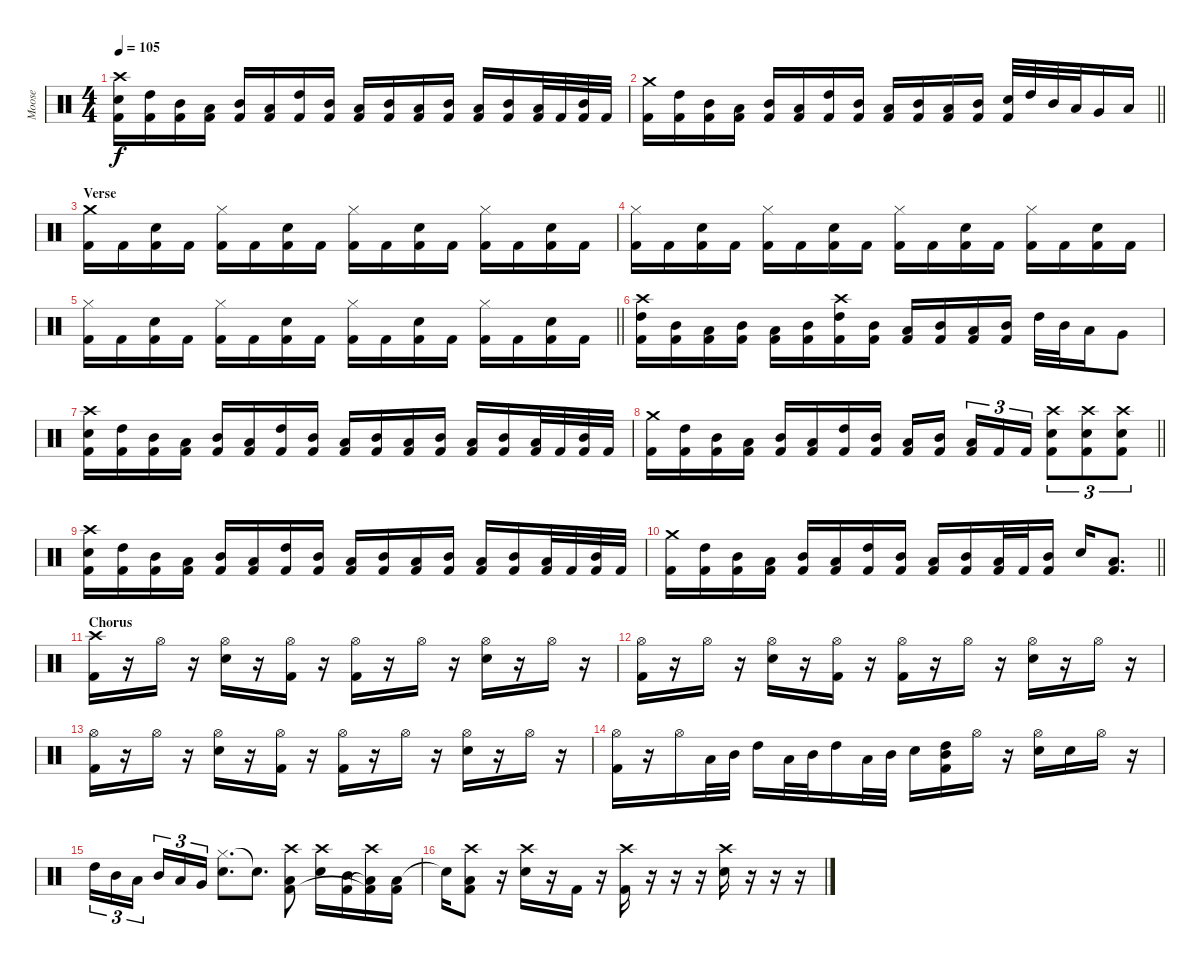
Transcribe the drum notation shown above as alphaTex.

\track ("Moose" "Moose") {instrument percussion}
\staff {score}
\articulation defaults
\ts (4 4)
\tempo 105
\clef neutral
\ks c
("Crash high (hit)" "Electric Snare (hit)" "Kick (hit) 2").16{dy f} ("High Tom (hit)" "Kick (hit) 2").16 ("Mid Tom (hit)" "Kick (hit) 2").16 ("Low Tom (hit)" "Kick (hit) 2").16 ("Mid Tom (hit)" "Kick (hit) 2").16 ("Low Tom (hit)" "Kick (hit) 2").16 ("High Tom (hit)" "Kick (hit) 2").16 ("Mid Tom (hit)" "Kick (hit) 2").16 ("Low Tom (hit)" "Kick (hit) 2").16 ("Mid Tom (hit)" "Kick (hit) 2").16 ("Low Tom (hit)" "Kick (hit) 2").16 ("Mid Tom (hit)" "Kick (hit) 2").16 ("Low Tom (hit)" "Kick (hit) 2").16 ("Mid Tom (hit)" "Kick (hit) 2").16 ("Low Tom (hit)" "Kick (hit) 2").32 "Kick (hit) 2".32 ("Mid Tom (hit)" "Kick (hit) 2").32 "Kick (hit) 2".32 |
\barLineRight lightlight
("Crash medium (hit)" "Kick (hit) 2").16 ("High Tom (hit)" "Kick (hit) 2").16 ("Mid Tom (hit)" "Kick (hit) 2").16 ("Low Tom (hit)" "Kick (hit) 2").16 ("Mid Tom (hit)" "Kick (hit) 2").16 ("Low Tom (hit)" "Kick (hit) 2").16 ("High Tom (hit)" "Kick (hit) 2").16 ("Mid Tom (hit)" "Kick (hit) 2").16 ("Low Tom (hit)" "Kick (hit) 2").16 ("Mid Tom (hit)" "Kick (hit) 2").16 ("Low Tom (hit)" "Kick (hit) 2").16 ("Mid Tom (hit)" "Kick (hit) 2").16 ("Electric Snare (hit)" "Kick (hit) 2").32 "High Tom (hit)".32 "Mid Tom (hit)".32 "Low Tom (hit)".32 "Very Low Tom (hit)".16 "Low Tom (hit)".16 |
\section ("" "Verse")
("Crash medium (hit)" "Kick (hit) 2").16 "Kick (hit) 2".16 ("Electric Snare (hit)" "Kick (hit) 2").16 "Kick (hit) 2".16 ("Hi-Hat (closed)" "Kick (hit) 2").16 "Kick (hit) 2".16 ("Electric Snare (hit)" "Kick (hit) 2").16 "Kick (hit) 2".16 ("Hi-Hat (closed)" "Kick (hit) 2").16 "Kick (hit) 2".16 ("Electric Snare (hit)" "Kick (hit) 2").16 "Kick (hit) 2".16 ("Hi-Hat (closed)" "Kick (hit) 2").16 "Kick (hit) 2".16 ("Electric Snare (hit)" "Kick (hit) 2").16 "Kick (hit) 2".16 |
("Hi-Hat (closed)" "Kick (hit) 2").16 "Kick (hit) 2".16 ("Electric Snare (hit)" "Kick (hit) 2").16 "Kick (hit) 2".16 ("Hi-Hat (closed)" "Kick (hit) 2").16 "Kick (hit) 2".16 ("Electric Snare (hit)" "Kick (hit) 2").16 "Kick (hit) 2".16 ("Hi-Hat (closed)" "Kick (hit) 2").16 "Kick (hit) 2".16 ("Electric Snare (hit)" "Kick (hit) 2").16 "Kick (hit) 2".16 ("Hi-Hat (closed)" "Kick (hit) 2").16 "Kick (hit) 2".16 ("Electric Snare (hit)" "Kick (hit) 2").16 "Kick (hit) 2".16 |
\barLineRight lightlight
("Hi-Hat (closed)" "Kick (hit) 2").16 "Kick (hit) 2".16 ("Electric Snare (hit)" "Kick (hit) 2").16 "Kick (hit) 2".16 ("Hi-Hat (closed)" "Kick (hit) 2").16 "Kick (hit) 2".16 ("Electric Snare (hit)" "Kick (hit) 2").16 "Kick (hit) 2".16 ("Hi-Hat (closed)" "Kick (hit) 2").16 "Kick (hit) 2".16 ("Electric Snare (hit)" "Kick (hit) 2").16 "Kick (hit) 2".16 ("Hi-Hat (closed)" "Kick (hit) 2").16 "Kick (hit) 2".16 ("Electric Snare (hit)" "Kick (hit) 2").16 "Kick (hit) 2".16 |
("Crash high (hit)" "High Tom (hit)" "Kick (hit) 2").16 ("Mid Tom (hit)" "Kick (hit) 2").16 ("Low Tom (hit)" "Kick (hit) 2").16 ("Mid Tom (hit)" "Kick (hit) 2").16 ("Low Tom (hit)" "Kick (hit) 2").16 ("Mid Tom (hit)" "Kick (hit) 2").16 ("Crash high (hit)" "High Tom (hit)" "Kick (hit) 2").16 ("Mid Tom (hit)" "Kick (hit) 2").16 ("Low Tom (hit)" "Kick (hit) 2").16 ("Mid Tom (hit)" "Kick (hit) 2").16 ("Low Tom (hit)" "Kick (hit) 2").16 ("Mid Tom (hit)" "Kick (hit) 2").16 "High Tom (hit)".32 "Mid Tom (hit)".32 "Low Tom (hit)".16 "Very Low Tom (hit)".8 |
("Crash high (hit)" "Electric Snare (hit)" "Kick (hit) 2").16 ("High Tom (hit)" "Kick (hit) 2").16 ("Mid Tom (hit)" "Kick (hit) 2").16 ("Low Tom (hit)" "Kick (hit) 2").16 ("Mid Tom (hit)" "Kick (hit) 2").16 ("Low Tom (hit)" "Kick (hit) 2").16 ("High Tom (hit)" "Kick (hit) 2").16 ("Mid Tom (hit)" "Kick (hit) 2").16 ("Low Tom (hit)" "Kick (hit) 2").16 ("Mid Tom (hit)" "Kick (hit) 2").16 ("Low Tom (hit)" "Kick (hit) 2").16 ("Mid Tom (hit)" "Kick (hit) 2").16 ("Low Tom (hit)" "Kick (hit) 2").16 ("Mid Tom (hit)" "Kick (hit) 2").16 ("Low Tom (hit)" "Kick (hit) 2").32 "Kick (hit) 2".32 ("Mid Tom (hit)" "Kick (hit) 2").32 "Kick (hit) 2".32 |
\barLineRight lightlight
("Crash medium (hit)" "Kick (hit) 2").16 ("High Tom (hit)" "Kick (hit) 2").16 ("Mid Tom (hit)" "Kick (hit) 2").16 ("Low Tom (hit)" "Kick (hit) 2").16 ("Mid Tom (hit)" "Kick (hit) 2").16 ("Low Tom (hit)" "Kick (hit) 2").16 ("High Tom (hit)" "Kick (hit) 2").16 ("Mid Tom (hit)" "Kick (hit) 2").16 ("Low Tom (hit)" "Kick (hit) 2").16 ("Mid Tom (hit)" "Kick (hit) 2").16{beam splitsecondary} ("Low Tom (hit)" "Kick (hit) 2").16{tu (3 2)} "Kick (hit) 2".16{tu (3 2)} "Kick (hit) 2".16{tu (3 2)} ("Crash high (hit)" "Electric Snare (hit)" "Kick (hit) 2").8{tu (3 2)} ("Crash high (hit)" "Electric Snare (hit)" "Kick (hit) 2").8{tu (3 2)} ("Crash high (hit)" "Electric Snare (hit)" "Kick (hit) 2").8{tu (3 2)} |
("Crash high (hit)" "Electric Snare (hit)" "Kick (hit) 2").16 ("High Tom (hit)" "Kick (hit) 2").16 ("Mid Tom (hit)" "Kick (hit) 2").16 ("Low Tom (hit)" "Kick (hit) 2").16 ("Mid Tom (hit)" "Kick (hit) 2").16 ("Low Tom (hit)" "Kick (hit) 2").16 ("High Tom (hit)" "Kick (hit) 2").16 ("Mid Tom (hit)" "Kick (hit) 2").16 ("Low Tom (hit)" "Kick (hit) 2").16 ("Mid Tom (hit)" "Kick (hit) 2").16 ("Low Tom (hit)" "Kick (hit) 2").16 ("Mid Tom (hit)" "Kick (hit) 2").16 ("Low Tom (hit)" "Kick (hit) 2").16 ("Mid Tom (hit)" "Kick (hit) 2").16 ("Low Tom (hit)" "Kick (hit) 2").32 "Kick (hit) 2".32 ("Mid Tom (hit)" "Kick (hit) 2").32 "Kick (hit) 2".32 |
\barLineRight lightlight
("Crash medium (hit)" "Kick (hit) 2").16 ("High Tom (hit)" "Kick (hit) 2").16 ("Mid Tom (hit)" "Kick (hit) 2").16 ("Low Tom (hit)" "Kick (hit) 2").16 ("Mid Tom (hit)" "Kick (hit) 2").16 ("Low Tom (hit)" "Kick (hit) 2").16 ("High Tom (hit)" "Kick (hit) 2").16 ("Mid Tom (hit)" "Kick (hit) 2").16 ("Low Tom (hit)" "Kick (hit) 2").16 ("Mid Tom (hit)" "Kick (hit) 2").16 ("Low Tom (hit)" "Kick (hit) 2").32 "Kick (hit) 2".32 ("Mid Tom (hit)" "Kick (hit) 2").16 "Electric Snare (hit)".16 ("Low Tom (hit)" "Kick (hit) 2").8{d} |
\section ("" "Chorus")
("Crash high (hit)" "Kick (hit) 2").16 r.16 "Hi-Hat (open)".16 r.16 ("Hi-Hat (open)" "Electric Snare (hit)").16 r.16 ("Hi-Hat (open)" "Kick (hit) 2").16 r.16 ("Hi-Hat (open)" "Kick (hit) 2").16 r.16 "Hi-Hat (open)".16 r.16 ("Hi-Hat (open)" "Electric Snare (hit)").16 r.16 "Hi-Hat (open)".16 r.16 |
("Hi-Hat (open)" "Kick (hit) 2").16 r.16 "Hi-Hat (open)".16 r.16 ("Hi-Hat (open)" "Electric Snare (hit)").16 r.16 ("Hi-Hat (open)" "Kick (hit) 2").16 r.16 ("Hi-Hat (open)" "Kick (hit) 2").16 r.16 "Hi-Hat (open)".16 r.16 ("Hi-Hat (open)" "Electric Snare (hit)").16 r.16 "Hi-Hat (open)".16 r.16 |
("Hi-Hat (open)" "Kick (hit) 2").16 r.16 "Hi-Hat (open)".16 r.16 ("Hi-Hat (open)" "Electric Snare (hit)").16 r.16 ("Hi-Hat (open)" "Kick (hit) 2").16 r.16 ("Hi-Hat (open)" "Kick (hit) 2").16 r.16 "Hi-Hat (open)".16 r.16 ("Hi-Hat (open)" "Electric Snare (hit)").16 r.16 "Hi-Hat (open)".16 r.16 |
("Hi-Hat (open)" "Kick (hit) 2").16 r.16 "Hi-Hat (open)".16 "Low Tom (hit)".32 "Mid Tom (hit)".32 "High Tom (hit)".16 "Low Tom (hit)".32 "Mid Tom (hit)".32 "High Tom (hit)".16 "Low Tom (hit)".32 "Mid Tom (hit)".32 "Electric Snare (hit)".16 ("Mid Tom (hit)" "High Tom (hit)" "Kick (hit) 2").16 "Hi-Hat (open)".16 r.16 ("Hi-Hat (open)" "Electric Snare (hit)").16 "Electric Snare (hit)".16 "Hi-Hat (open)".16 r.16 |
"High Tom (hit)".16{tu (3 2)} "Mid Tom (hit)".16{tu (3 2)} "Low Tom (hit)".16{tu (3 2) beam splitsecondary} "Mid Tom (hit)".16{tu (3 2)} "Low Tom (hit)".16{tu (3 2)} "Very Low Tom (hit)".16{tu (3 2)} ("Hi-Hat (closed)" "Electric Snare (hit)").8{d} "Snare (hit)"{t}.8{d} ("Crash high (hit)" "Low Tom (hit)" "Kick (hit) 2").8 ("Crash high (hit)" "Electric Snare (hit)").16 ("Mid Tom (hit)" "Kick (hit) 2").16 ("Crash high (hit)" "Low Tom (hit)"{t} "Kick (hit) 2"{t}).16 ("Low Tom (hit)" "Kick (hit) 2").16 |
"Snare (hit)"{t}.16 ("Crash high (hit)" "Low Tom (hit)" "Kick (hit) 2").8 r.16 ("Crash high (hit)" "Electric Snare (hit)").16 r.16 "Kick (hit) 2".16 r.16 ("Crash high (hit)" "Kick (hit) 2").16 r.16 r.16 r.16 ("Crash high (hit)" "Electric Snare (hit)").16 r.16 r.16 r.16
